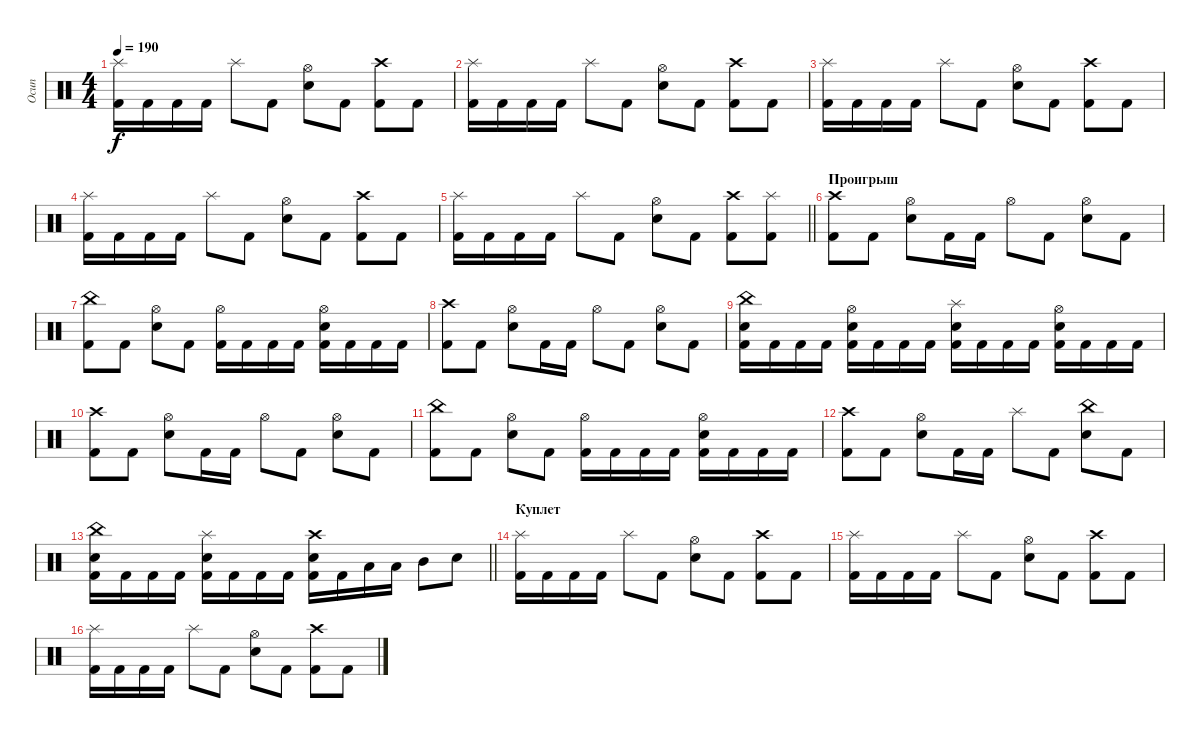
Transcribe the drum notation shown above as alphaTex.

\track ("Осип" "Осип") {instrument percussion}
\staff {score}
\articulation defaults
\ts (4 4)
\tempo 190
\clef neutral
\ks c
("Splash (hit)" "Kick (hit) 2").16{dy f} "Kick (hit) 2".16 "Kick (hit) 2".16 "Kick (hit) 2".16 "Splash (hit)".8 "Kick (hit) 2".8 ("Electric Snare (hit)" "Hi-Hat (open)").8 "Kick (hit) 2".8 ("Crash high (hit)" "Kick (hit) 2").8 "Kick (hit) 2".8 |
("Splash (hit)" "Kick (hit) 2").16 "Kick (hit) 2".16 "Kick (hit) 2".16 "Kick (hit) 2".16 "Splash (hit)".8 "Kick (hit) 2".8 ("Electric Snare (hit)" "Hi-Hat (open)").8 "Kick (hit) 2".8 ("Crash high (hit)" "Kick (hit) 2").8 "Kick (hit) 2".8 |
("Splash (hit)" "Kick (hit) 2").16 "Kick (hit) 2".16 "Kick (hit) 2".16 "Kick (hit) 2".16 "Splash (hit)".8 "Kick (hit) 2".8 ("Electric Snare (hit)" "Hi-Hat (open)").8 "Kick (hit) 2".8 ("Crash high (hit)" "Kick (hit) 2").8 "Kick (hit) 2".8 |
("Splash (hit)" "Kick (hit) 2").16 "Kick (hit) 2".16 "Kick (hit) 2".16 "Kick (hit) 2".16 "Splash (hit)".8 "Kick (hit) 2".8 ("Electric Snare (hit)" "Hi-Hat (open)").8 "Kick (hit) 2".8 ("Crash high (hit)" "Kick (hit) 2").8 "Kick (hit) 2".8 |
\barLineRight lightlight
("Splash (hit)" "Kick (hit) 2").16 "Kick (hit) 2".16 "Kick (hit) 2".16 "Kick (hit) 2".16 "Splash (hit)".8 "Kick (hit) 2".8 ("Electric Snare (hit)" "Hi-Hat (open)").8 "Kick (hit) 2".8 ("Crash high (hit)" "Kick (hit) 2").8 ("Splash (hit)" "Kick (hit) 2").8 |
\section ("" "Проигрыш")
("Kick (hit) 2" "Crash high (hit)").8 "Kick (hit) 2".8 ("Electric Snare (hit)" "Hi-Hat (open)").8 "Kick (hit) 2".16 "Kick (hit) 2".16 "Hi-Hat (open)".8 "Kick (hit) 2".8 ("Electric Snare (hit)" "Hi-Hat (open)").8 "Kick (hit) 2".8 |
("Kick (hit) 2" "China (hit)").8 "Kick (hit) 2".8 ("Electric Snare (hit)" "Hi-Hat (open)").8 "Kick (hit) 2".8 ("Kick (hit) 2" "Hi-Hat (open)").16 "Kick (hit) 2".16 "Kick (hit) 2".16 "Kick (hit) 2".16 ("Kick (hit) 2" "Electric Snare (hit)" "Hi-Hat (open)").16 "Kick (hit) 2".16 "Kick (hit) 2".16 "Kick (hit) 2".16 |
("Kick (hit) 2" "Crash high (hit)").8 "Kick (hit) 2".8 ("Electric Snare (hit)" "Hi-Hat (open)").8 "Kick (hit) 2".16 "Kick (hit) 2".16 "Hi-Hat (open)".8 "Kick (hit) 2".8 ("Electric Snare (hit)" "Hi-Hat (open)").8 "Kick (hit) 2".8 |
("Kick (hit) 2" "Electric Snare (hit)" "China (hit)").16 "Kick (hit) 2".16 "Kick (hit) 2".16 "Kick (hit) 2".16 ("Kick (hit) 2" "Electric Snare (hit)" "Hi-Hat (open)").16 "Kick (hit) 2".16 "Kick (hit) 2".16 "Kick (hit) 2".16 ("Kick (hit) 2" "Electric Snare (hit)" "Splash (hit)").16 "Kick (hit) 2".16 "Kick (hit) 2".16 "Kick (hit) 2".16 ("Kick (hit) 2" "Electric Snare (hit)" "Hi-Hat (open)").16 "Kick (hit) 2".16 "Kick (hit) 2".16 "Kick (hit) 2".16 |
("Kick (hit) 2" "Crash high (hit)").8 "Kick (hit) 2".8 ("Electric Snare (hit)" "Hi-Hat (open)").8 "Kick (hit) 2".16 "Kick (hit) 2".16 "Hi-Hat (open)".8 "Kick (hit) 2".8 ("Electric Snare (hit)" "Hi-Hat (open)").8 "Kick (hit) 2".8 |
("Kick (hit) 2" "China (hit)").8 "Kick (hit) 2".8 ("Electric Snare (hit)" "Hi-Hat (open)").8 "Kick (hit) 2".8 ("Kick (hit) 2" "Hi-Hat (open)").16 "Kick (hit) 2".16 "Kick (hit) 2".16 "Kick (hit) 2".16 ("Kick (hit) 2" "Electric Snare (hit)" "Hi-Hat (open)").16 "Kick (hit) 2".16 "Kick (hit) 2".16 "Kick (hit) 2".16 |
("Kick (hit) 2" "Crash high (hit)").8 "Kick (hit) 2".8 ("Electric Snare (hit)" "Hi-Hat (open)").8 "Kick (hit) 2".16 "Kick (hit) 2".16 "Splash (hit)".8 "Kick (hit) 2".8 ("Electric Snare (hit)" "China (hit)").8 "Kick (hit) 2".8 |
\barLineRight lightlight
("Kick (hit) 2" "Electric Snare (hit)" "China (hit)").16 "Kick (hit) 2".16 "Kick (hit) 2".16 "Kick (hit) 2".16 ("Kick (hit) 2" "Electric Snare (hit)" "Splash (hit)").16 "Kick (hit) 2".16 "Kick (hit) 2".16 "Kick (hit) 2".16 ("Kick (hit) 2" "Electric Snare (hit)" "Crash high (hit)").16 "Kick (hit) 2".16 "Low Tom (hit)".16 "Low Tom (hit)".16 "Mid Tom (hit)".8 "Electric Snare (hit)".8 |
\section ("" "Куплет")
("Splash (hit)" "Kick (hit) 2").16 "Kick (hit) 2".16 "Kick (hit) 2".16 "Kick (hit) 2".16 "Splash (hit)".8 "Kick (hit) 2".8 ("Electric Snare (hit)" "Hi-Hat (open)").8 "Kick (hit) 2".8 ("Crash high (hit)" "Kick (hit) 2").8 "Kick (hit) 2".8 |
("Splash (hit)" "Kick (hit) 2").16 "Kick (hit) 2".16 "Kick (hit) 2".16 "Kick (hit) 2".16 "Splash (hit)".8 "Kick (hit) 2".8 ("Electric Snare (hit)" "Hi-Hat (open)").8 "Kick (hit) 2".8 ("Crash high (hit)" "Kick (hit) 2").8 "Kick (hit) 2".8 |
("Splash (hit)" "Kick (hit) 2").16 "Kick (hit) 2".16 "Kick (hit) 2".16 "Kick (hit) 2".16 "Splash (hit)".8 "Kick (hit) 2".8 ("Electric Snare (hit)" "Hi-Hat (open)").8 "Kick (hit) 2".8 ("Crash high (hit)" "Kick (hit) 2").8 "Kick (hit) 2".8
